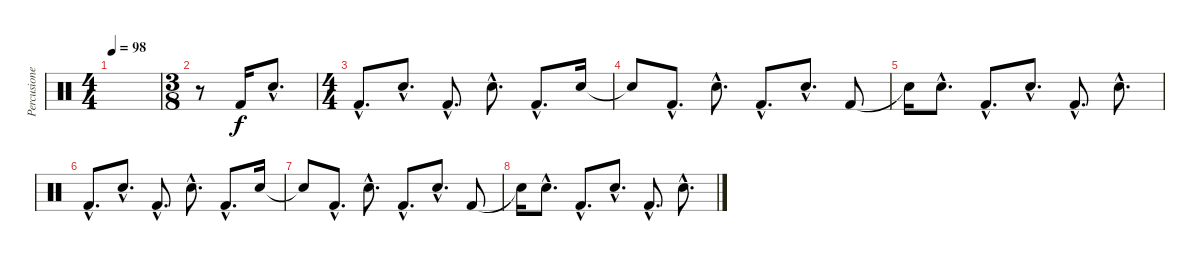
\track ("Percusiones" "Percusione") {instrument percussion}
\staff {score}
\articulation defaults
\ts (4 4)
\tempo 98
\clef neutral
\ks c
|
\ts (3 8)
r.8 "Kick (hit) 2".16 "Electric Snare (hit)"{hac}.8{d} |
\ts (4 4)
"Kick (hit) 2"{hac}.8{d} "Electric Snare (hit)"{hac}.8{d} "Kick (hit) 2"{hac}.8{d} "Electric Snare (hit)"{hac}.8{d} "Kick (hit) 2"{hac}.8{d} "Electric Snare (hit)".16 |
"Snare (hit)"{t}.8 "Kick (hit) 2"{hac}.8{d} "Electric Snare (hit)"{hac}.8{d} "Kick (hit) 2"{hac}.8{d} "Electric Snare (hit)"{hac}.8{d} "Kick (hit) 2".8 |
"Snare (hit)"{t}.16 "Electric Snare (hit)"{hac}.8{d} "Kick (hit) 2"{hac}.8{d} "Electric Snare (hit)"{hac}.8{d} "Kick (hit) 2"{hac}.8{d} "Electric Snare (hit)"{hac}.8{d} |
"Kick (hit) 2"{hac}.8{d} "Electric Snare (hit)"{hac}.8{d} "Kick (hit) 2"{hac}.8{d} "Electric Snare (hit)"{hac}.8{d} "Kick (hit) 2"{hac}.8{d} "Electric Snare (hit)".16 |
"Snare (hit)"{t}.8 "Kick (hit) 2"{hac}.8{d} "Electric Snare (hit)"{hac}.8{d} "Kick (hit) 2"{hac}.8{d} "Electric Snare (hit)"{hac}.8{d} "Kick (hit) 2".8 |
"Snare (hit)"{t}.16 "Electric Snare (hit)"{hac}.8{d} "Kick (hit) 2"{hac}.8{d} "Electric Snare (hit)"{hac}.8{d} "Kick (hit) 2"{hac}.8{d} "Electric Snare (hit)"{hac}.8{d}
